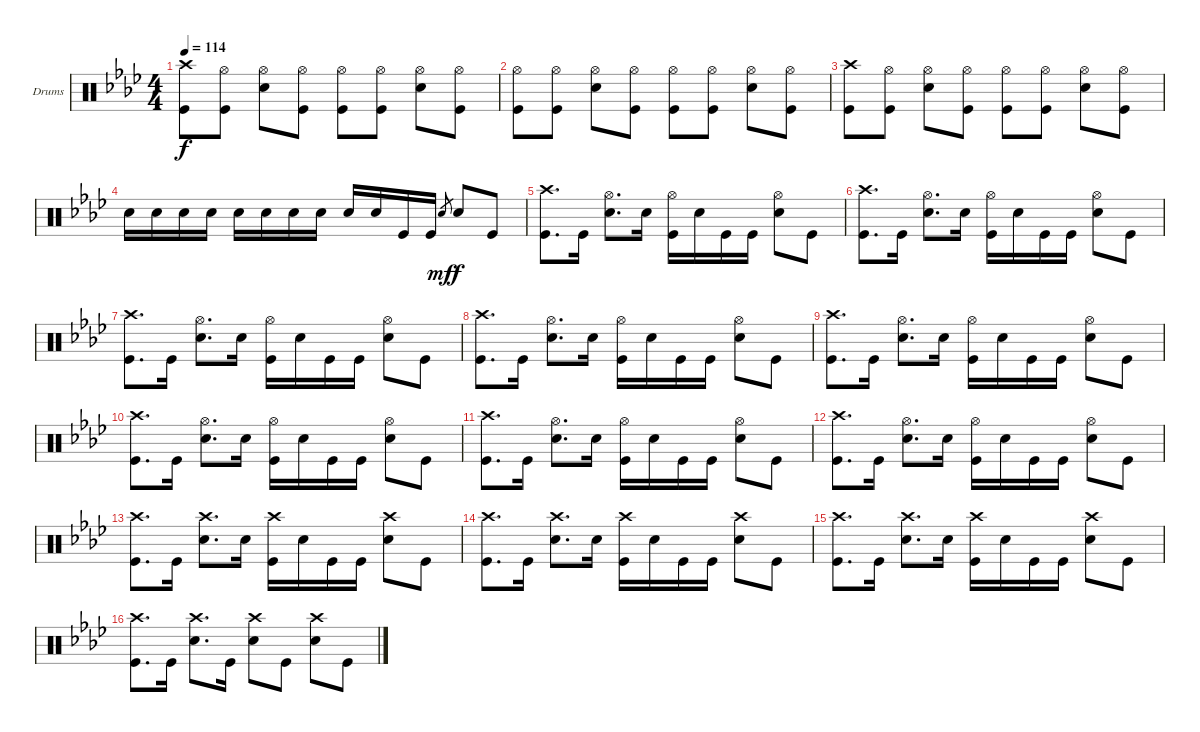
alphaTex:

\defaultSystemsLayout 4
\bracketExtendMode groupsimilarinstruments
\firstSystemTrackNameOrientation horizontal
\otherSystemsTrackNameOrientation horizontal
\track ("Drumkit" "Drums") {instrument percussion}
\staff {score}
\articulation defaults
\ts (4 4)
\tempo 114
\clef neutral
\scale
1.06431
\ks ab
("Crash high (hit)" "Kick (hit)").8{dy f} ("Hi-Hat (open)" "Kick (hit)").8 ("Hi-Hat (open)" "Snare (hit) 2").8 ("Hi-Hat (open)" "Kick (hit)").8 ("Hi-Hat (open)" "Kick (hit)").8 ("Hi-Hat (open)" "Kick (hit)").8 ("Hi-Hat (open)" "Snare (hit) 2").8 ("Hi-Hat (open)" "Kick (hit)").8 |
\scale
0.935687 ("Hi-Hat (open)" "Kick (hit)").8 ("Hi-Hat (open)" "Kick (hit)").8 ("Hi-Hat (open)" "Snare (hit) 2").8 ("Hi-Hat (open)" "Kick (hit)").8 ("Hi-Hat (open)" "Kick (hit)").8 ("Hi-Hat (open)" "Kick (hit)").8 ("Hi-Hat (open)" "Snare (hit) 2").8 ("Hi-Hat (open)" "Kick (hit)").8 |
\scale
1.06431 ("Crash high (hit)" "Kick (hit)").8 ("Hi-Hat (open)" "Kick (hit)").8 ("Hi-Hat (open)" "Snare (hit) 2").8 ("Hi-Hat (open)" "Kick (hit)").8 ("Hi-Hat (open)" "Kick (hit)").8 ("Hi-Hat (open)" "Kick (hit)").8 ("Hi-Hat (open)" "Snare (hit) 2").8 ("Hi-Hat (open)" "Kick (hit)").8 |
\scale
0.935687 "Snare (hit) 2".16 "Snare (hit) 2".16 "Snare (hit) 2".16 "Snare (hit) 2".16 "Snare (hit) 2".16 "Snare (hit) 2".16 "Snare (hit) 2".16 "Snare (hit) 2".16 "Snare (hit) 2".16 "Snare (hit) 2".16 "Kick (hit)".16 "Kick (hit)".16 "Snare (hit) 2".8{gr dy mf} "Snare (hit) 2".8{dy f} "Kick (hit)".8 |
\scale
1.06431 ("Crash high (hit)" "Kick (hit)").8{d} "Kick (hit)".16 ("Hi-Hat (open)" "Snare (hit) 2").8{d} "Snare (hit) 2".16 ("Hi-Hat (open)" "Kick (hit)").16 "Snare (hit) 2".16 "Kick (hit)".16 "Kick (hit)".16 ("Hi-Hat (open)" "Snare (hit) 2").8 "Kick (hit)".8 |
\scale
0.935687 ("Crash high (hit)" "Kick (hit)").8{d} "Kick (hit)".16 ("Hi-Hat (open)" "Snare (hit) 2").8{d} "Snare (hit) 2".16 ("Hi-Hat (open)" "Kick (hit)").16 "Snare (hit) 2".16 "Kick (hit)".16 "Kick (hit)".16 ("Hi-Hat (open)" "Snare (hit) 2").8 "Kick (hit)".8 |
\scale
1.06431 ("Crash high (hit)" "Kick (hit)").8{d} "Kick (hit)".16 ("Hi-Hat (open)" "Snare (hit) 2").8{d} "Snare (hit) 2".16 ("Hi-Hat (open)" "Kick (hit)").16 "Snare (hit) 2".16 "Kick (hit)".16 "Kick (hit)".16 ("Hi-Hat (open)" "Snare (hit) 2").8 "Kick (hit)".8 |
\scale
0.935687 ("Crash high (hit)" "Kick (hit)").8{d} "Kick (hit)".16 ("Hi-Hat (open)" "Snare (hit) 2").8{d} "Snare (hit) 2".16 ("Hi-Hat (open)" "Kick (hit)").16 "Snare (hit) 2".16 "Kick (hit)".16 "Kick (hit)".16 ("Hi-Hat (open)" "Snare (hit) 2").8 "Kick (hit)".8 |
\scale
1.06431 ("Crash high (hit)" "Kick (hit)").8{d} "Kick (hit)".16 ("Hi-Hat (open)" "Snare (hit) 2").8{d} "Snare (hit) 2".16 ("Hi-Hat (open)" "Kick (hit)").16 "Snare (hit) 2".16 "Kick (hit)".16 "Kick (hit)".16 ("Hi-Hat (open)" "Snare (hit) 2").8 "Kick (hit)".8 |
\scale
0.935687 ("Crash high (hit)" "Kick (hit)").8{d} "Kick (hit)".16 ("Hi-Hat (open)" "Snare (hit) 2").8{d} "Snare (hit) 2".16 ("Hi-Hat (open)" "Kick (hit)").16 "Snare (hit) 2".16 "Kick (hit)".16 "Kick (hit)".16 ("Hi-Hat (open)" "Snare (hit) 2").8 "Kick (hit)".8 |
\scale
1.06431 ("Crash high (hit)" "Kick (hit)").8{d} "Kick (hit)".16 ("Hi-Hat (open)" "Snare (hit) 2").8{d} "Snare (hit) 2".16 ("Hi-Hat (open)" "Kick (hit)").16 "Snare (hit) 2".16 "Kick (hit)".16 "Kick (hit)".16 ("Hi-Hat (open)" "Snare (hit) 2").8 "Kick (hit)".8 |
\scale
0.935687 ("Crash high (hit)" "Kick (hit)").8{d} "Kick (hit)".16 ("Hi-Hat (open)" "Snare (hit) 2").8{d} "Snare (hit) 2".16 ("Hi-Hat (open)" "Kick (hit)").16 "Snare (hit) 2".16 "Kick (hit)".16 "Kick (hit)".16 ("Hi-Hat (open)" "Snare (hit) 2").8 "Kick (hit)".8 |
\scale
1.06431 ("Crash high (hit)" "Kick (hit)").8{d} "Kick (hit)".16 ("Crash high (hit)" "Snare (hit) 2").8{d} "Snare (hit) 2".16 ("Crash high (hit)" "Kick (hit)").16 "Snare (hit) 2".16 "Kick (hit)".16 "Kick (hit)".16 ("Crash high (hit)" "Snare (hit) 2").8 "Kick (hit)".8 |
\scale
0.935687 ("Crash high (hit)" "Kick (hit)").8{d} "Kick (hit)".16 ("Crash high (hit)" "Snare (hit) 2").8{d} "Snare (hit) 2".16 ("Crash high (hit)" "Kick (hit)").16 "Snare (hit) 2".16 "Kick (hit)".16 "Kick (hit)".16 ("Crash high (hit)" "Snare (hit) 2").8 "Kick (hit)".8 |
\scale
1.06431 ("Crash high (hit)" "Kick (hit)").8{d} "Kick (hit)".16 ("Crash high (hit)" "Snare (hit) 2").8{d} "Snare (hit) 2".16 ("Crash high (hit)" "Kick (hit)").16 "Snare (hit) 2".16 "Kick (hit)".16 "Kick (hit)".16 ("Crash high (hit)" "Snare (hit) 2").8 "Kick (hit)".8 |
\scale
0.935687 ("Crash high (hit)" "Kick (hit)").8{d} "Kick (hit)".16 ("Crash high (hit)" "Snare (hit) 2").8{d} "Kick (hit)".16 ("Crash high (hit)" "Snare (hit) 2").8 "Kick (hit)".8 ("Crash high (hit)" "Snare (hit) 2").8 "Kick (hit)".8
